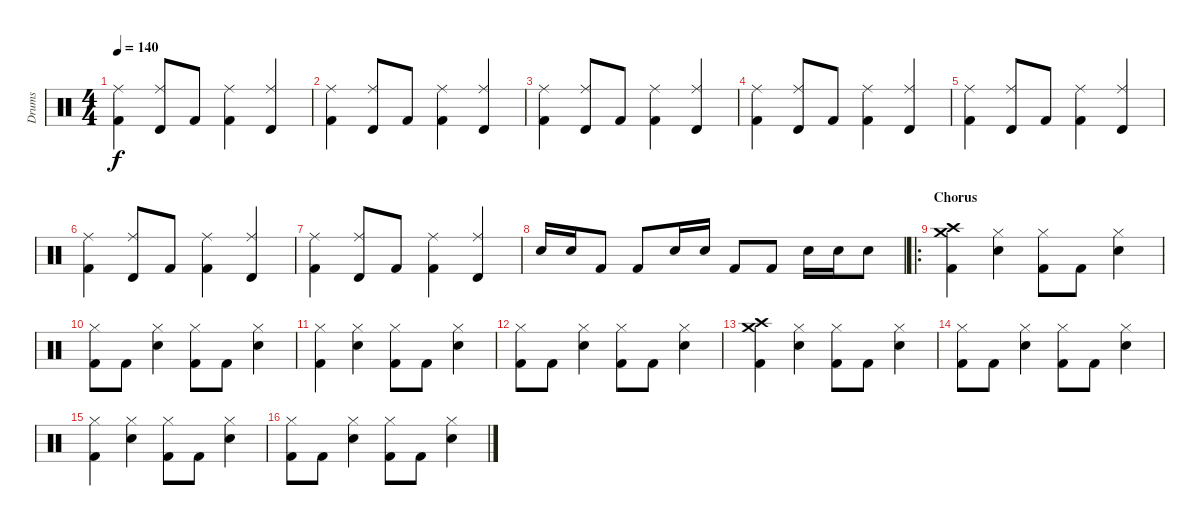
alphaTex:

\track ("Drums" "Drums") {instrument percussion}
\staff {score}
\articulation defaults
\ts (4 4)
\tempo 140
\clef neutral
\ks c
("Ride (middle)" "Kick (hit) 2").4{dy f} ("Ride (middle)" "Timbale high (hit)").8 "Kick (hit) 2".8 ("Ride (middle)" "Kick (hit) 2").4 ("Ride (middle)" "Timbale high (hit)").4 |
("Ride (middle)" "Kick (hit) 2").4 ("Ride (middle)" "Timbale high (hit)").8 "Kick (hit) 2".8 ("Ride (middle)" "Kick (hit) 2").4 ("Ride (middle)" "Timbale high (hit)").4 |
("Ride (middle)" "Kick (hit) 2").4 ("Ride (middle)" "Timbale high (hit)").8 "Kick (hit) 2".8 ("Ride (middle)" "Kick (hit) 2").4 ("Ride (middle)" "Timbale high (hit)").4 |
("Ride (middle)" "Kick (hit) 2").4 ("Ride (middle)" "Timbale high (hit)").8 "Kick (hit) 2".8 ("Ride (middle)" "Kick (hit) 2").4 ("Ride (middle)" "Timbale high (hit)").4 |
("Ride (middle)" "Kick (hit) 2").4 ("Ride (middle)" "Timbale high (hit)").8 "Kick (hit) 2".8 ("Ride (middle)" "Kick (hit) 2").4 ("Ride (middle)" "Timbale high (hit)").4 |
("Ride (middle)" "Kick (hit) 2").4 ("Ride (middle)" "Timbale high (hit)").8 "Kick (hit) 2".8 ("Ride (middle)" "Kick (hit) 2").4 ("Ride (middle)" "Timbale high (hit)").4 |
("Ride (middle)" "Kick (hit) 2").4 ("Ride (middle)" "Timbale high (hit)").8 "Kick (hit) 2".8 ("Ride (middle)" "Kick (hit) 2").4 ("Ride (middle)" "Timbale high (hit)").4 |
"Snare (hit) 2".16 "Snare (hit) 2".16 "Kick (hit) 2".8 "Kick (hit) 2".8 "Snare (hit) 2".16 "Snare (hit) 2".16 "Kick (hit) 2".8 "Kick (hit) 2".8 "Snare (hit) 2".16 "Snare (hit) 2".16 "Snare (hit) 2".8 |
\ro
\section ("" "Chorus")
("Crash medium (hit)" "Crash high (hit)" "Kick (hit) 2").4 ("Hi-Hat (closed)" "Snare (hit) 2").4 ("Hi-Hat (closed)" "Kick (hit) 2").8 "Kick (hit) 2".8 ("Hi-Hat (closed)" "Snare (hit) 2").4 |
("Hi-Hat (closed)" "Kick (hit) 2").8 "Kick (hit) 2".8 ("Hi-Hat (closed)" "Snare (hit) 2").4 ("Hi-Hat (closed)" "Kick (hit) 2").8 "Kick (hit) 2".8 ("Hi-Hat (closed)" "Snare (hit) 2").4 |
("Hi-Hat (closed)" "Kick (hit) 2").4 ("Hi-Hat (closed)" "Snare (hit) 2").4 ("Hi-Hat (closed)" "Kick (hit) 2").8 "Kick (hit) 2".8 ("Hi-Hat (closed)" "Snare (hit) 2").4 |
("Hi-Hat (closed)" "Kick (hit) 2").8 "Kick (hit) 2".8 ("Hi-Hat (closed)" "Snare (hit) 2").4 ("Hi-Hat (closed)" "Kick (hit) 2").8 "Kick (hit) 2".8 ("Hi-Hat (closed)" "Snare (hit) 2").4 |
("Crash medium (hit)" "Crash high (hit)" "Kick (hit) 2").4 ("Hi-Hat (closed)" "Snare (hit) 2").4 ("Hi-Hat (closed)" "Kick (hit) 2").8 "Kick (hit) 2".8 ("Hi-Hat (closed)" "Snare (hit) 2").4 |
("Hi-Hat (closed)" "Kick (hit) 2").8 "Kick (hit) 2".8 ("Hi-Hat (closed)" "Snare (hit) 2").4 ("Hi-Hat (closed)" "Kick (hit) 2").8 "Kick (hit) 2".8 ("Hi-Hat (closed)" "Snare (hit) 2").4 |
("Hi-Hat (closed)" "Kick (hit) 2").4 ("Hi-Hat (closed)" "Snare (hit) 2").4 ("Hi-Hat (closed)" "Kick (hit) 2").8 "Kick (hit) 2".8 ("Hi-Hat (closed)" "Snare (hit) 2").4 |
("Hi-Hat (closed)" "Kick (hit) 2").8 "Kick (hit) 2".8 ("Hi-Hat (closed)" "Snare (hit) 2").4 ("Hi-Hat (closed)" "Kick (hit) 2").8 "Kick (hit) 2".8 ("Hi-Hat (closed)" "Snare (hit) 2").4
